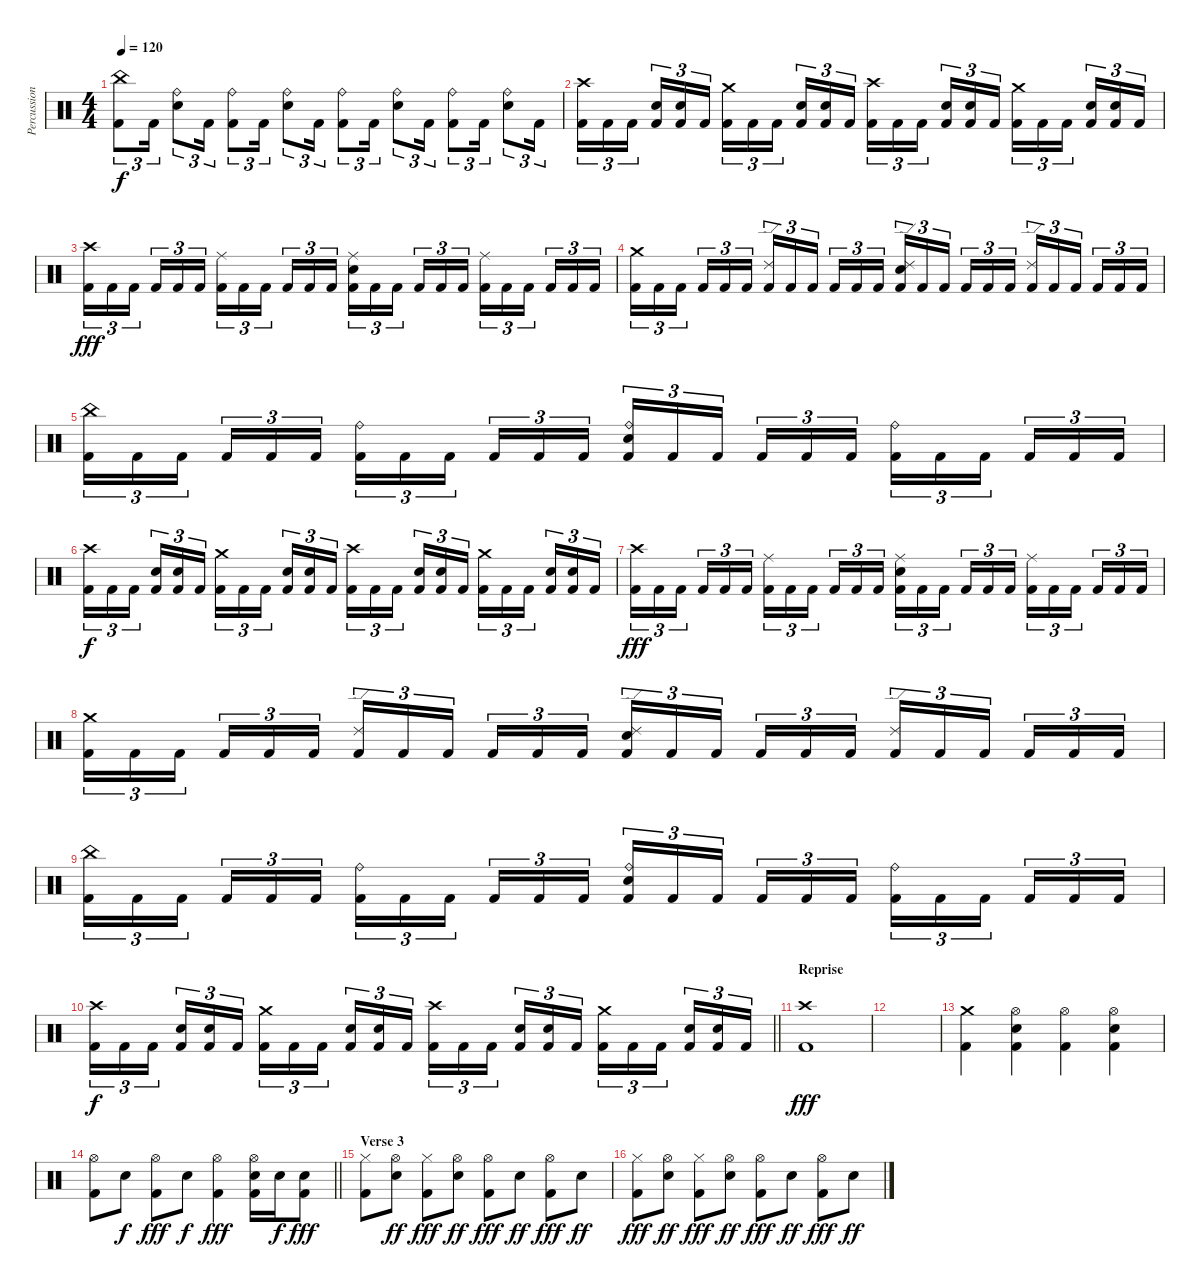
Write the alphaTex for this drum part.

\track ("Percussion" "Percussion") {instrument percussion}
\staff {score}
\articulation defaults
\ts (4 4)
\tempo 120
\clef neutral
\ks c
("China (hit)" "Kick (hit) 2").8{tu (3 2) dy f} "Kick (hit) 2".16{tu (3 2)} ("Ride (bell)" "Electric Snare (hit)").8{tu (3 2)} "Kick (hit) 2".16{tu (3 2)} ("Ride (bell)" "Kick (hit) 2").8{tu (3 2)} "Kick (hit) 2".16{tu (3 2)} ("Ride (bell)" "Electric Snare (hit)").8{tu (3 2)} "Kick (hit) 2".16{tu (3 2)} ("Ride (bell)" "Kick (hit) 2").8{tu (3 2)} "Kick (hit) 2".16{tu (3 2)} ("Ride (bell)" "Electric Snare (hit)").8{tu (3 2)} "Kick (hit) 2".16{tu (3 2)} ("Ride (bell)" "Kick (hit) 2").8{tu (3 2)} "Kick (hit) 2".16{tu (3 2)} ("Ride (bell)" "Electric Snare (hit)").8{tu (3 2)} "Kick (hit) 2".16{tu (3 2)} |
("Crash high (hit)" "Kick (hit) 2").16{tu (3 2)} "Kick (hit) 2".16{tu (3 2)} "Kick (hit) 2".16{tu (3 2) beam splitsecondary} ("Electric Snare (hit)" "Kick (hit) 2").16{tu (3 2)} ("Electric Snare (hit)" "Kick (hit) 2").16{tu (3 2)} "Kick (hit) 2".16{tu (3 2)} ("Crash medium (hit)" "Kick (hit) 2").16{tu (3 2)} "Kick (hit) 2".16{tu (3 2)} "Kick (hit) 2".16{tu (3 2) beam splitsecondary} ("Electric Snare (hit)" "Kick (hit) 2").16{tu (3 2)} ("Electric Snare (hit)" "Kick (hit) 2").16{tu (3 2)} "Kick (hit) 2".16{tu (3 2)} ("Crash high (hit)" "Kick (hit) 2").16{tu (3 2)} "Kick (hit) 2".16{tu (3 2)} "Kick (hit) 2".16{tu (3 2) beam splitsecondary} ("Electric Snare (hit)" "Kick (hit) 2").16{tu (3 2)} ("Electric Snare (hit)" "Kick (hit) 2").16{tu (3 2)} "Kick (hit) 2".16{tu (3 2)} ("Crash medium (hit)" "Kick (hit) 2").16{tu (3 2)} "Kick (hit) 2".16{tu (3 2)} "Kick (hit) 2".16{tu (3 2) beam splitsecondary} ("Electric Snare (hit)" "Kick (hit) 2").16{tu (3 2)} ("Electric Snare (hit)" "Kick (hit) 2").16{tu (3 2)} "Kick (hit) 2".16{tu (3 2)} |
("Crash high (hit)" "Kick (hit) 2").16{tu (3 2) dy fff} "Kick (hit) 2".16{tu (3 2)} "Kick (hit) 2".16{tu (3 2) beam splitsecondary} "Kick (hit) 2".16{tu (3 2)} "Kick (hit) 2".16{tu (3 2)} "Kick (hit) 2".16{tu (3 2)} ("Ride (middle)" "Kick (hit) 2").16{tu (3 2)} "Kick (hit) 2".16{tu (3 2)} "Kick (hit) 2".16{tu (3 2) beam splitsecondary} "Kick (hit) 2".16{tu (3 2)} "Kick (hit) 2".16{tu (3 2)} "Kick (hit) 2".16{tu (3 2)} ("Ride (middle)" "Electric Snare (hit)" "Kick (hit) 2").16{tu (3 2)} "Kick (hit) 2".16{tu (3 2)} "Kick (hit) 2".16{tu (3 2) beam splitsecondary} "Kick (hit) 2".16{tu (3 2)} "Kick (hit) 2".16{tu (3 2)} "Kick (hit) 2".16{tu (3 2)} ("Ride (middle)" "Kick (hit) 2").16{tu (3 2)} "Kick (hit) 2".16{tu (3 2)} "Kick (hit) 2".16{tu (3 2) beam splitsecondary} "Kick (hit) 2".16{tu (3 2)} "Kick (hit) 2".16{tu (3 2)} "Kick (hit) 2".16{tu (3 2)} |
("Crash medium (hit)" "Kick (hit) 2").16{tu (3 2)} "Kick (hit) 2".16{tu (3 2)} "Kick (hit) 2".16{tu (3 2) beam splitsecondary} "Kick (hit) 2".16{tu (3 2)} "Kick (hit) 2".16{tu (3 2)} "Kick (hit) 2".16{tu (3 2)} ("Ride (edge) 2" "Kick (hit) 2").16{tu (3 2)} "Kick (hit) 2".16{tu (3 2)} "Kick (hit) 2".16{tu (3 2) beam splitsecondary} "Kick (hit) 2".16{tu (3 2)} "Kick (hit) 2".16{tu (3 2)} "Kick (hit) 2".16{tu (3 2)} ("Ride (edge) 2" "Electric Snare (hit)" "Kick (hit) 2").16{tu (3 2)} "Kick (hit) 2".16{tu (3 2)} "Kick (hit) 2".16{tu (3 2) beam splitsecondary} "Kick (hit) 2".16{tu (3 2)} "Kick (hit) 2".16{tu (3 2)} "Kick (hit) 2".16{tu (3 2)} ("Ride (edge) 2" "Kick (hit) 2").16{tu (3 2)} "Kick (hit) 2".16{tu (3 2)} "Kick (hit) 2".16{tu (3 2) beam splitsecondary} "Kick (hit) 2".16{tu (3 2)} "Kick (hit) 2".16{tu (3 2)} "Kick (hit) 2".16{tu (3 2)} |
("China (hit)" "Kick (hit) 2").16{tu (3 2)} "Kick (hit) 2".16{tu (3 2)} "Kick (hit) 2".16{tu (3 2) beam splitsecondary} "Kick (hit) 2".16{tu (3 2)} "Kick (hit) 2".16{tu (3 2)} "Kick (hit) 2".16{tu (3 2)} ("Ride (bell)" "Kick (hit) 2").16{tu (3 2)} "Kick (hit) 2".16{tu (3 2)} "Kick (hit) 2".16{tu (3 2) beam splitsecondary} "Kick (hit) 2".16{tu (3 2)} "Kick (hit) 2".16{tu (3 2)} "Kick (hit) 2".16{tu (3 2)} ("Ride (bell)" "Electric Snare (hit)" "Kick (hit) 2").16{tu (3 2)} "Kick (hit) 2".16{tu (3 2)} "Kick (hit) 2".16{tu (3 2) beam splitsecondary} "Kick (hit) 2".16{tu (3 2)} "Kick (hit) 2".16{tu (3 2)} "Kick (hit) 2".16{tu (3 2)} ("Ride (bell)" "Kick (hit) 2").16{tu (3 2)} "Kick (hit) 2".16{tu (3 2)} "Kick (hit) 2".16{tu (3 2) beam splitsecondary} "Kick (hit) 2".16{tu (3 2)} "Kick (hit) 2".16{tu (3 2)} "Kick (hit) 2".16{tu (3 2)} |
("Crash high (hit)" "Kick (hit) 2").16{tu (3 2) dy f} "Kick (hit) 2".16{tu (3 2)} "Kick (hit) 2".16{tu (3 2) beam splitsecondary} ("Electric Snare (hit)" "Kick (hit) 2").16{tu (3 2)} ("Electric Snare (hit)" "Kick (hit) 2").16{tu (3 2)} "Kick (hit) 2".16{tu (3 2)} ("Crash medium (hit)" "Kick (hit) 2").16{tu (3 2)} "Kick (hit) 2".16{tu (3 2)} "Kick (hit) 2".16{tu (3 2) beam splitsecondary} ("Electric Snare (hit)" "Kick (hit) 2").16{tu (3 2)} ("Electric Snare (hit)" "Kick (hit) 2").16{tu (3 2)} "Kick (hit) 2".16{tu (3 2)} ("Crash high (hit)" "Kick (hit) 2").16{tu (3 2)} "Kick (hit) 2".16{tu (3 2)} "Kick (hit) 2".16{tu (3 2) beam splitsecondary} ("Electric Snare (hit)" "Kick (hit) 2").16{tu (3 2)} ("Electric Snare (hit)" "Kick (hit) 2").16{tu (3 2)} "Kick (hit) 2".16{tu (3 2)} ("Crash medium (hit)" "Kick (hit) 2").16{tu (3 2)} "Kick (hit) 2".16{tu (3 2)} "Kick (hit) 2".16{tu (3 2) beam splitsecondary} ("Electric Snare (hit)" "Kick (hit) 2").16{tu (3 2)} ("Electric Snare (hit)" "Kick (hit) 2").16{tu (3 2)} "Kick (hit) 2".16{tu (3 2)} |
("Crash high (hit)" "Kick (hit) 2").16{tu (3 2) dy fff} "Kick (hit) 2".16{tu (3 2)} "Kick (hit) 2".16{tu (3 2) beam splitsecondary} "Kick (hit) 2".16{tu (3 2)} "Kick (hit) 2".16{tu (3 2)} "Kick (hit) 2".16{tu (3 2)} ("Ride (middle)" "Kick (hit) 2").16{tu (3 2)} "Kick (hit) 2".16{tu (3 2)} "Kick (hit) 2".16{tu (3 2) beam splitsecondary} "Kick (hit) 2".16{tu (3 2)} "Kick (hit) 2".16{tu (3 2)} "Kick (hit) 2".16{tu (3 2)} ("Ride (middle)" "Electric Snare (hit)" "Kick (hit) 2").16{tu (3 2)} "Kick (hit) 2".16{tu (3 2)} "Kick (hit) 2".16{tu (3 2) beam splitsecondary} "Kick (hit) 2".16{tu (3 2)} "Kick (hit) 2".16{tu (3 2)} "Kick (hit) 2".16{tu (3 2)} ("Ride (middle)" "Kick (hit) 2").16{tu (3 2)} "Kick (hit) 2".16{tu (3 2)} "Kick (hit) 2".16{tu (3 2) beam splitsecondary} "Kick (hit) 2".16{tu (3 2)} "Kick (hit) 2".16{tu (3 2)} "Kick (hit) 2".16{tu (3 2)} |
("Crash medium (hit)" "Kick (hit) 2").16{tu (3 2)} "Kick (hit) 2".16{tu (3 2)} "Kick (hit) 2".16{tu (3 2) beam splitsecondary} "Kick (hit) 2".16{tu (3 2)} "Kick (hit) 2".16{tu (3 2)} "Kick (hit) 2".16{tu (3 2)} ("Ride (edge) 2" "Kick (hit) 2").16{tu (3 2)} "Kick (hit) 2".16{tu (3 2)} "Kick (hit) 2".16{tu (3 2) beam splitsecondary} "Kick (hit) 2".16{tu (3 2)} "Kick (hit) 2".16{tu (3 2)} "Kick (hit) 2".16{tu (3 2)} ("Ride (edge) 2" "Electric Snare (hit)" "Kick (hit) 2").16{tu (3 2)} "Kick (hit) 2".16{tu (3 2)} "Kick (hit) 2".16{tu (3 2) beam splitsecondary} "Kick (hit) 2".16{tu (3 2)} "Kick (hit) 2".16{tu (3 2)} "Kick (hit) 2".16{tu (3 2)} ("Ride (edge) 2" "Kick (hit) 2").16{tu (3 2)} "Kick (hit) 2".16{tu (3 2)} "Kick (hit) 2".16{tu (3 2) beam splitsecondary} "Kick (hit) 2".16{tu (3 2)} "Kick (hit) 2".16{tu (3 2)} "Kick (hit) 2".16{tu (3 2)} |
("China (hit)" "Kick (hit) 2").16{tu (3 2)} "Kick (hit) 2".16{tu (3 2)} "Kick (hit) 2".16{tu (3 2) beam splitsecondary} "Kick (hit) 2".16{tu (3 2)} "Kick (hit) 2".16{tu (3 2)} "Kick (hit) 2".16{tu (3 2)} ("Ride (bell)" "Kick (hit) 2").16{tu (3 2)} "Kick (hit) 2".16{tu (3 2)} "Kick (hit) 2".16{tu (3 2) beam splitsecondary} "Kick (hit) 2".16{tu (3 2)} "Kick (hit) 2".16{tu (3 2)} "Kick (hit) 2".16{tu (3 2)} ("Ride (bell)" "Electric Snare (hit)" "Kick (hit) 2").16{tu (3 2)} "Kick (hit) 2".16{tu (3 2)} "Kick (hit) 2".16{tu (3 2) beam splitsecondary} "Kick (hit) 2".16{tu (3 2)} "Kick (hit) 2".16{tu (3 2)} "Kick (hit) 2".16{tu (3 2)} ("Ride (bell)" "Kick (hit) 2").16{tu (3 2)} "Kick (hit) 2".16{tu (3 2)} "Kick (hit) 2".16{tu (3 2) beam splitsecondary} "Kick (hit) 2".16{tu (3 2)} "Kick (hit) 2".16{tu (3 2)} "Kick (hit) 2".16{tu (3 2)} |
\barLineRight lightlight
("Crash high (hit)" "Kick (hit) 2").16{tu (3 2) dy f} "Kick (hit) 2".16{tu (3 2)} "Kick (hit) 2".16{tu (3 2) beam splitsecondary} ("Electric Snare (hit)" "Kick (hit) 2").16{tu (3 2)} ("Electric Snare (hit)" "Kick (hit) 2").16{tu (3 2)} "Kick (hit) 2".16{tu (3 2)} ("Crash medium (hit)" "Kick (hit) 2").16{tu (3 2)} "Kick (hit) 2".16{tu (3 2)} "Kick (hit) 2".16{tu (3 2) beam splitsecondary} ("Electric Snare (hit)" "Kick (hit) 2").16{tu (3 2)} ("Electric Snare (hit)" "Kick (hit) 2").16{tu (3 2)} "Kick (hit) 2".16{tu (3 2)} ("Crash high (hit)" "Kick (hit) 2").16{tu (3 2)} "Kick (hit) 2".16{tu (3 2)} "Kick (hit) 2".16{tu (3 2) beam splitsecondary} ("Electric Snare (hit)" "Kick (hit) 2").16{tu (3 2)} ("Electric Snare (hit)" "Kick (hit) 2").16{tu (3 2)} "Kick (hit) 2".16{tu (3 2)} ("Crash medium (hit)" "Kick (hit) 2").16{tu (3 2)} "Kick (hit) 2".16{tu (3 2)} "Kick (hit) 2".16{tu (3 2) beam splitsecondary} ("Electric Snare (hit)" "Kick (hit) 2").16{tu (3 2)} ("Electric Snare (hit)" "Kick (hit) 2").16{tu (3 2)} "Kick (hit) 2".16{tu (3 2)} |
\section ("" "Reprise")
("Crash high (hit)" "Kick (hit) 2").1{dy fff} |
|
("Crash medium (hit)" "Kick (hit) 2").4 ("Hi-Hat (open)" "Electric Snare (hit)" "Kick (hit) 2").4 ("Hi-Hat (open)" "Kick (hit) 2").4 ("Hi-Hat (open)" "Electric Snare (hit)" "Kick (hit) 2").4 |
\barLineRight lightlight
("Hi-Hat (open)" "Kick (hit) 2").8 "Electric Snare (hit)".8{dy f} ("Hi-Hat (open)" "Kick (hit) 2").8{dy fff} "Electric Snare (hit)".8{dy f} ("Hi-Hat (open)" "Kick (hit) 2").4{dy fff} ("Hi-Hat (open)" "Electric Snare (hit)" "Kick (hit) 2").16 "Electric Snare (hit)".16{dy f} ("Electric Snare (hit)" "Kick (hit) 2").8{dy fff} |
\section ("" "Verse 3")
("Hi-Hat (closed)" "Kick (hit) 2").8 ("Hi-Hat (open)" "Electric Snare (hit)").8{dy ff} ("Hi-Hat (closed)" "Kick (hit) 2").8{dy fff} ("Hi-Hat (open)" "Electric Snare (hit)").8{dy ff} ("Hi-Hat (open)" "Kick (hit) 2").8{dy fff} "Electric Snare (hit)".8{dy ff} ("Hi-Hat (open)" "Kick (hit) 2").8{dy fff} "Electric Snare (hit)".8{dy ff} |
("Hi-Hat (closed)" "Kick (hit) 2").8{dy fff} ("Hi-Hat (open)" "Electric Snare (hit)").8{dy ff} ("Hi-Hat (closed)" "Kick (hit) 2").8{dy fff} ("Hi-Hat (open)" "Electric Snare (hit)").8{dy ff} ("Hi-Hat (open)" "Kick (hit) 2").8{dy fff} "Electric Snare (hit)".8{dy ff} ("Hi-Hat (open)" "Kick (hit) 2").8{dy fff} "Electric Snare (hit)".8{dy ff}
